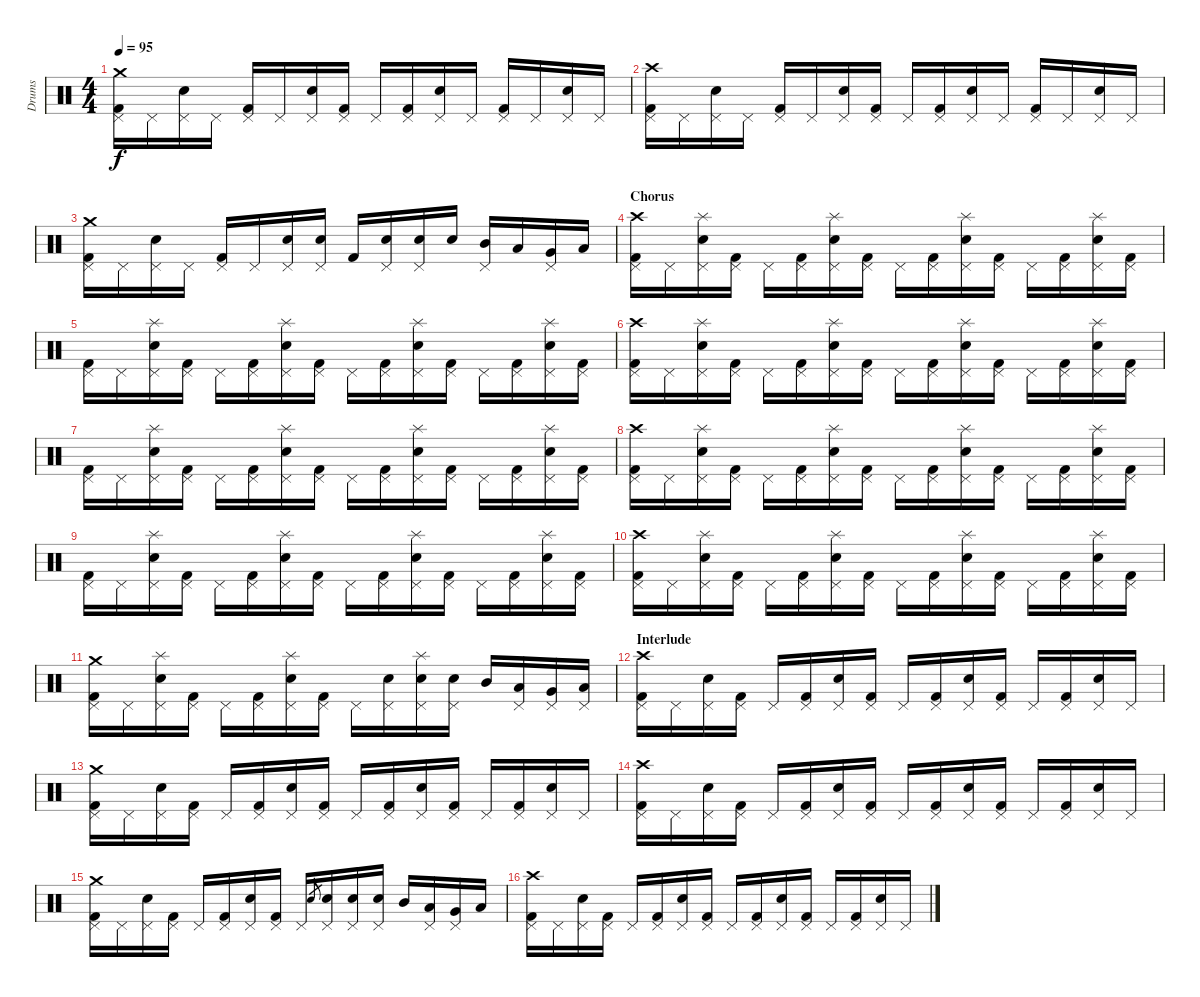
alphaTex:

\track ("Drums" "Drums") {instrument percussion}
\staff {score}
\articulation defaults
\ts (4 4)
\tempo 95
\clef neutral
\ks c
("Kick (hit) 2" "Pedal Hi-Hat (hit)" "Crash medium (hit)").16{dy f} "Pedal Hi-Hat (hit)".16 ("Snare (hit) 2" "Pedal Hi-Hat (hit)").16 "Pedal Hi-Hat (hit)".16 ("Kick (hit) 2" "Pedal Hi-Hat (hit)").16 "Pedal Hi-Hat (hit)".16 ("Snare (hit) 2" "Pedal Hi-Hat (hit)").16 ("Kick (hit) 2" "Pedal Hi-Hat (hit)").16 "Pedal Hi-Hat (hit)".16 ("Kick (hit) 2" "Pedal Hi-Hat (hit)").16 ("Snare (hit) 2" "Pedal Hi-Hat (hit)").16 "Pedal Hi-Hat (hit)".16 ("Kick (hit) 2" "Pedal Hi-Hat (hit)").16 "Pedal Hi-Hat (hit)".16 ("Snare (hit) 2" "Pedal Hi-Hat (hit)").16 "Pedal Hi-Hat (hit)".16 |
("Kick (hit) 2" "Pedal Hi-Hat (hit)" "Crash high (hit)").16 "Pedal Hi-Hat (hit)".16 ("Snare (hit) 2" "Pedal Hi-Hat (hit)").16 "Pedal Hi-Hat (hit)".16 ("Kick (hit) 2" "Pedal Hi-Hat (hit)").16 "Pedal Hi-Hat (hit)".16 ("Snare (hit) 2" "Pedal Hi-Hat (hit)").16 ("Kick (hit) 2" "Pedal Hi-Hat (hit)").16 "Pedal Hi-Hat (hit)".16 ("Kick (hit) 2" "Pedal Hi-Hat (hit)").16 ("Snare (hit) 2" "Pedal Hi-Hat (hit)").16 "Pedal Hi-Hat (hit)".16 ("Kick (hit) 2" "Pedal Hi-Hat (hit)").16 "Pedal Hi-Hat (hit)".16 ("Snare (hit) 2" "Pedal Hi-Hat (hit)").16 "Pedal Hi-Hat (hit)".16 |
("Kick (hit) 2" "Pedal Hi-Hat (hit)" "Crash medium (hit)").16 "Pedal Hi-Hat (hit)".16 ("Snare (hit) 2" "Pedal Hi-Hat (hit)").16 "Pedal Hi-Hat (hit)".16 ("Kick (hit) 2" "Pedal Hi-Hat (hit)").16 "Pedal Hi-Hat (hit)".16 ("Snare (hit) 2" "Pedal Hi-Hat (hit)").16 ("Snare (hit) 2" "Pedal Hi-Hat (hit)").16 "Kick (hit) 2".16 ("Snare (hit) 2" "Pedal Hi-Hat (hit)").16 ("Snare (hit) 2" "Pedal Hi-Hat (hit)").16 "Snare (hit) 2".16 ("Mid Tom (hit)" "Pedal Hi-Hat (hit)").16 "Low Tom (hit)".16 ("Very Low Tom (hit)" "Pedal Hi-Hat (hit)").16 "Low Floor Tom (hit)".16 |
\section ("" "Chorus")
("Kick (hit) 2" "Pedal Hi-Hat (hit)" "Crash high (hit)").16 "Pedal Hi-Hat (hit)".16 ("Snare (hit) 2" "Pedal Hi-Hat (hit)" "Splash (hit)").16 ("Kick (hit) 2" "Pedal Hi-Hat (hit)").16 "Pedal Hi-Hat (hit)".16 ("Kick (hit) 2" "Pedal Hi-Hat (hit)").16 ("Snare (hit) 2" "Pedal Hi-Hat (hit)" "Splash (hit)").16 ("Kick (hit) 2" "Pedal Hi-Hat (hit)").16 "Pedal Hi-Hat (hit)".16 ("Kick (hit) 2" "Pedal Hi-Hat (hit)").16 ("Snare (hit) 2" "Pedal Hi-Hat (hit)" "Splash (hit)").16 ("Kick (hit) 2" "Pedal Hi-Hat (hit)").16 "Pedal Hi-Hat (hit)".16 ("Kick (hit) 2" "Pedal Hi-Hat (hit)").16 ("Snare (hit) 2" "Pedal Hi-Hat (hit)" "Splash (hit)").16 ("Kick (hit) 2" "Pedal Hi-Hat (hit)").16 |
("Kick (hit) 2" "Pedal Hi-Hat (hit)").16 "Pedal Hi-Hat (hit)".16 ("Snare (hit) 2" "Pedal Hi-Hat (hit)" "Splash (hit)").16 ("Kick (hit) 2" "Pedal Hi-Hat (hit)").16 "Pedal Hi-Hat (hit)".16 ("Kick (hit) 2" "Pedal Hi-Hat (hit)").16 ("Snare (hit) 2" "Pedal Hi-Hat (hit)" "Splash (hit)").16 ("Kick (hit) 2" "Pedal Hi-Hat (hit)").16 "Pedal Hi-Hat (hit)".16 ("Kick (hit) 2" "Pedal Hi-Hat (hit)").16 ("Snare (hit) 2" "Pedal Hi-Hat (hit)" "Splash (hit)").16 ("Kick (hit) 2" "Pedal Hi-Hat (hit)").16 "Pedal Hi-Hat (hit)".16 ("Kick (hit) 2" "Pedal Hi-Hat (hit)").16 ("Snare (hit) 2" "Pedal Hi-Hat (hit)" "Splash (hit)").16 ("Kick (hit) 2" "Pedal Hi-Hat (hit)").16 |
("Kick (hit) 2" "Pedal Hi-Hat (hit)" "Crash high (hit)").16 "Pedal Hi-Hat (hit)".16 ("Snare (hit) 2" "Pedal Hi-Hat (hit)" "Splash (hit)").16 ("Kick (hit) 2" "Pedal Hi-Hat (hit)").16 "Pedal Hi-Hat (hit)".16 ("Kick (hit) 2" "Pedal Hi-Hat (hit)").16 ("Snare (hit) 2" "Pedal Hi-Hat (hit)" "Splash (hit)").16 ("Kick (hit) 2" "Pedal Hi-Hat (hit)").16 "Pedal Hi-Hat (hit)".16 ("Kick (hit) 2" "Pedal Hi-Hat (hit)").16 ("Snare (hit) 2" "Pedal Hi-Hat (hit)" "Splash (hit)").16 ("Kick (hit) 2" "Pedal Hi-Hat (hit)").16 "Pedal Hi-Hat (hit)".16 ("Kick (hit) 2" "Pedal Hi-Hat (hit)").16 ("Snare (hit) 2" "Pedal Hi-Hat (hit)" "Splash (hit)").16 ("Kick (hit) 2" "Pedal Hi-Hat (hit)").16 |
("Kick (hit) 2" "Pedal Hi-Hat (hit)").16 "Pedal Hi-Hat (hit)".16 ("Snare (hit) 2" "Pedal Hi-Hat (hit)" "Splash (hit)").16 ("Kick (hit) 2" "Pedal Hi-Hat (hit)").16 "Pedal Hi-Hat (hit)".16 ("Kick (hit) 2" "Pedal Hi-Hat (hit)").16 ("Snare (hit) 2" "Pedal Hi-Hat (hit)" "Splash (hit)").16 ("Kick (hit) 2" "Pedal Hi-Hat (hit)").16 "Pedal Hi-Hat (hit)".16 ("Kick (hit) 2" "Pedal Hi-Hat (hit)").16 ("Snare (hit) 2" "Pedal Hi-Hat (hit)" "Splash (hit)").16 ("Kick (hit) 2" "Pedal Hi-Hat (hit)").16 "Pedal Hi-Hat (hit)".16 ("Kick (hit) 2" "Pedal Hi-Hat (hit)").16 ("Snare (hit) 2" "Pedal Hi-Hat (hit)" "Splash (hit)").16 ("Kick (hit) 2" "Pedal Hi-Hat (hit)").16 |
("Kick (hit) 2" "Pedal Hi-Hat (hit)" "Crash high (hit)").16 "Pedal Hi-Hat (hit)".16 ("Snare (hit) 2" "Pedal Hi-Hat (hit)" "Splash (hit)").16 ("Kick (hit) 2" "Pedal Hi-Hat (hit)").16 "Pedal Hi-Hat (hit)".16 ("Kick (hit) 2" "Pedal Hi-Hat (hit)").16 ("Snare (hit) 2" "Pedal Hi-Hat (hit)" "Splash (hit)").16 ("Kick (hit) 2" "Pedal Hi-Hat (hit)").16 "Pedal Hi-Hat (hit)".16 ("Kick (hit) 2" "Pedal Hi-Hat (hit)").16 ("Snare (hit) 2" "Pedal Hi-Hat (hit)" "Splash (hit)").16 ("Kick (hit) 2" "Pedal Hi-Hat (hit)").16 "Pedal Hi-Hat (hit)".16 ("Kick (hit) 2" "Pedal Hi-Hat (hit)").16 ("Snare (hit) 2" "Pedal Hi-Hat (hit)" "Splash (hit)").16 ("Kick (hit) 2" "Pedal Hi-Hat (hit)").16 |
("Kick (hit) 2" "Pedal Hi-Hat (hit)").16 "Pedal Hi-Hat (hit)".16 ("Snare (hit) 2" "Pedal Hi-Hat (hit)" "Splash (hit)").16 ("Kick (hit) 2" "Pedal Hi-Hat (hit)").16 "Pedal Hi-Hat (hit)".16 ("Kick (hit) 2" "Pedal Hi-Hat (hit)").16 ("Snare (hit) 2" "Pedal Hi-Hat (hit)" "Splash (hit)").16 ("Kick (hit) 2" "Pedal Hi-Hat (hit)").16 "Pedal Hi-Hat (hit)".16 ("Kick (hit) 2" "Pedal Hi-Hat (hit)").16 ("Snare (hit) 2" "Pedal Hi-Hat (hit)" "Splash (hit)").16 ("Kick (hit) 2" "Pedal Hi-Hat (hit)").16 "Pedal Hi-Hat (hit)".16 ("Kick (hit) 2" "Pedal Hi-Hat (hit)").16 ("Snare (hit) 2" "Pedal Hi-Hat (hit)" "Splash (hit)").16 ("Kick (hit) 2" "Pedal Hi-Hat (hit)").16 |
("Kick (hit) 2" "Pedal Hi-Hat (hit)" "Crash high (hit)").16 "Pedal Hi-Hat (hit)".16 ("Snare (hit) 2" "Pedal Hi-Hat (hit)" "Splash (hit)").16 ("Kick (hit) 2" "Pedal Hi-Hat (hit)").16 "Pedal Hi-Hat (hit)".16 ("Kick (hit) 2" "Pedal Hi-Hat (hit)").16 ("Snare (hit) 2" "Pedal Hi-Hat (hit)" "Splash (hit)").16 ("Kick (hit) 2" "Pedal Hi-Hat (hit)").16 "Pedal Hi-Hat (hit)".16 ("Kick (hit) 2" "Pedal Hi-Hat (hit)").16 ("Snare (hit) 2" "Pedal Hi-Hat (hit)" "Splash (hit)").16 ("Kick (hit) 2" "Pedal Hi-Hat (hit)").16 "Pedal Hi-Hat (hit)".16 ("Kick (hit) 2" "Pedal Hi-Hat (hit)").16 ("Snare (hit) 2" "Pedal Hi-Hat (hit)" "Splash (hit)").16 ("Kick (hit) 2" "Pedal Hi-Hat (hit)").16 |
("Kick (hit) 2" "Pedal Hi-Hat (hit)" "Crash medium (hit)").16 "Pedal Hi-Hat (hit)".16 ("Snare (hit) 2" "Pedal Hi-Hat (hit)" "Splash (hit)").16 ("Kick (hit) 2" "Pedal Hi-Hat (hit)").16 "Pedal Hi-Hat (hit)".16 ("Kick (hit) 2" "Pedal Hi-Hat (hit)").16 ("Snare (hit) 2" "Pedal Hi-Hat (hit)" "Splash (hit)").16 ("Kick (hit) 2" "Pedal Hi-Hat (hit)").16 "Pedal Hi-Hat (hit)".16 ("Snare (hit) 2" "Pedal Hi-Hat (hit)").16 ("Snare (hit) 2" "Pedal Hi-Hat (hit)" "Splash (hit)").16 ("Snare (hit) 2" "Pedal Hi-Hat (hit)").16 "Mid Tom (hit)".16 ("Low Tom (hit)" "Pedal Hi-Hat (hit)").16 ("Very Low Tom (hit)" "Pedal Hi-Hat (hit)").16 ("Low Floor Tom (hit)" "Pedal Hi-Hat (hit)").16 |
\section ("" "Interlude")
("Kick (hit) 2" "Pedal Hi-Hat (hit)" "Crash high (hit)").16 "Pedal Hi-Hat (hit)".16 ("Snare (hit) 2" "Pedal Hi-Hat (hit)").16 ("Kick (hit) 2" "Pedal Hi-Hat (hit)").16 "Pedal Hi-Hat (hit)".16 ("Kick (hit) 2" "Pedal Hi-Hat (hit)").16 ("Snare (hit) 2" "Pedal Hi-Hat (hit)").16 ("Kick (hit) 2" "Pedal Hi-Hat (hit)").16 "Pedal Hi-Hat (hit)".16 ("Kick (hit) 2" "Pedal Hi-Hat (hit)").16 ("Snare (hit) 2" "Pedal Hi-Hat (hit)").16 ("Kick (hit) 2" "Pedal Hi-Hat (hit)").16 "Pedal Hi-Hat (hit)".16 ("Kick (hit) 2" "Pedal Hi-Hat (hit)").16 ("Snare (hit) 2" "Pedal Hi-Hat (hit)").16 "Pedal Hi-Hat (hit)".16 |
("Kick (hit) 2" "Pedal Hi-Hat (hit)" "Crash medium (hit)").16 "Pedal Hi-Hat (hit)".16 ("Snare (hit) 2" "Pedal Hi-Hat (hit)").16 ("Kick (hit) 2" "Pedal Hi-Hat (hit)").16 "Pedal Hi-Hat (hit)".16 ("Kick (hit) 2" "Pedal Hi-Hat (hit)").16 ("Snare (hit) 2" "Pedal Hi-Hat (hit)").16 ("Kick (hit) 2" "Pedal Hi-Hat (hit)").16 "Pedal Hi-Hat (hit)".16 ("Kick (hit) 2" "Pedal Hi-Hat (hit)").16 ("Snare (hit) 2" "Pedal Hi-Hat (hit)").16 ("Kick (hit) 2" "Pedal Hi-Hat (hit)").16 "Pedal Hi-Hat (hit)".16 ("Kick (hit) 2" "Pedal Hi-Hat (hit)").16 ("Snare (hit) 2" "Pedal Hi-Hat (hit)").16 "Pedal Hi-Hat (hit)".16 |
("Kick (hit) 2" "Pedal Hi-Hat (hit)" "Crash high (hit)").16 "Pedal Hi-Hat (hit)".16 ("Snare (hit) 2" "Pedal Hi-Hat (hit)").16 ("Kick (hit) 2" "Pedal Hi-Hat (hit)").16 "Pedal Hi-Hat (hit)".16 ("Kick (hit) 2" "Pedal Hi-Hat (hit)").16 ("Snare (hit) 2" "Pedal Hi-Hat (hit)").16 ("Kick (hit) 2" "Pedal Hi-Hat (hit)").16 "Pedal Hi-Hat (hit)".16 ("Kick (hit) 2" "Pedal Hi-Hat (hit)").16 ("Snare (hit) 2" "Pedal Hi-Hat (hit)").16 ("Kick (hit) 2" "Pedal Hi-Hat (hit)").16 "Pedal Hi-Hat (hit)".16 ("Kick (hit) 2" "Pedal Hi-Hat (hit)").16 ("Snare (hit) 2" "Pedal Hi-Hat (hit)").16 "Pedal Hi-Hat (hit)".16 |
("Kick (hit) 2" "Pedal Hi-Hat (hit)" "Crash medium (hit)").16 "Pedal Hi-Hat (hit)".16 ("Snare (hit) 2" "Pedal Hi-Hat (hit)").16 ("Kick (hit) 2" "Pedal Hi-Hat (hit)").16 "Pedal Hi-Hat (hit)".16 ("Kick (hit) 2" "Pedal Hi-Hat (hit)").16 ("Snare (hit) 2" "Pedal Hi-Hat (hit)").16 ("Kick (hit) 2" "Pedal Hi-Hat (hit)").16 "Pedal Hi-Hat (hit)".16 "Snare (hit) 2".8{gr} ("Snare (hit) 2" "Pedal Hi-Hat (hit)").16 ("Snare (hit) 2" "Pedal Hi-Hat (hit)").16 ("Snare (hit) 2" "Pedal Hi-Hat (hit)").16 "Mid Tom (hit)".16 ("Low Tom (hit)" "Pedal Hi-Hat (hit)").16 ("Very Low Tom (hit)" "Pedal Hi-Hat (hit)").16 "Low Floor Tom (hit)".16 |
("Kick (hit) 2" "Pedal Hi-Hat (hit)" "Crash high (hit)").16 "Pedal Hi-Hat (hit)".16 ("Snare (hit) 2" "Pedal Hi-Hat (hit)").16 ("Kick (hit) 2" "Pedal Hi-Hat (hit)").16 "Pedal Hi-Hat (hit)".16 ("Kick (hit) 2" "Pedal Hi-Hat (hit)").16 ("Snare (hit) 2" "Pedal Hi-Hat (hit)").16 ("Kick (hit) 2" "Pedal Hi-Hat (hit)").16 "Pedal Hi-Hat (hit)".16 ("Kick (hit) 2" "Pedal Hi-Hat (hit)").16 ("Snare (hit) 2" "Pedal Hi-Hat (hit)").16 ("Kick (hit) 2" "Pedal Hi-Hat (hit)").16 "Pedal Hi-Hat (hit)".16 ("Kick (hit) 2" "Pedal Hi-Hat (hit)").16 ("Snare (hit) 2" "Pedal Hi-Hat (hit)").16 "Pedal Hi-Hat (hit)".16
